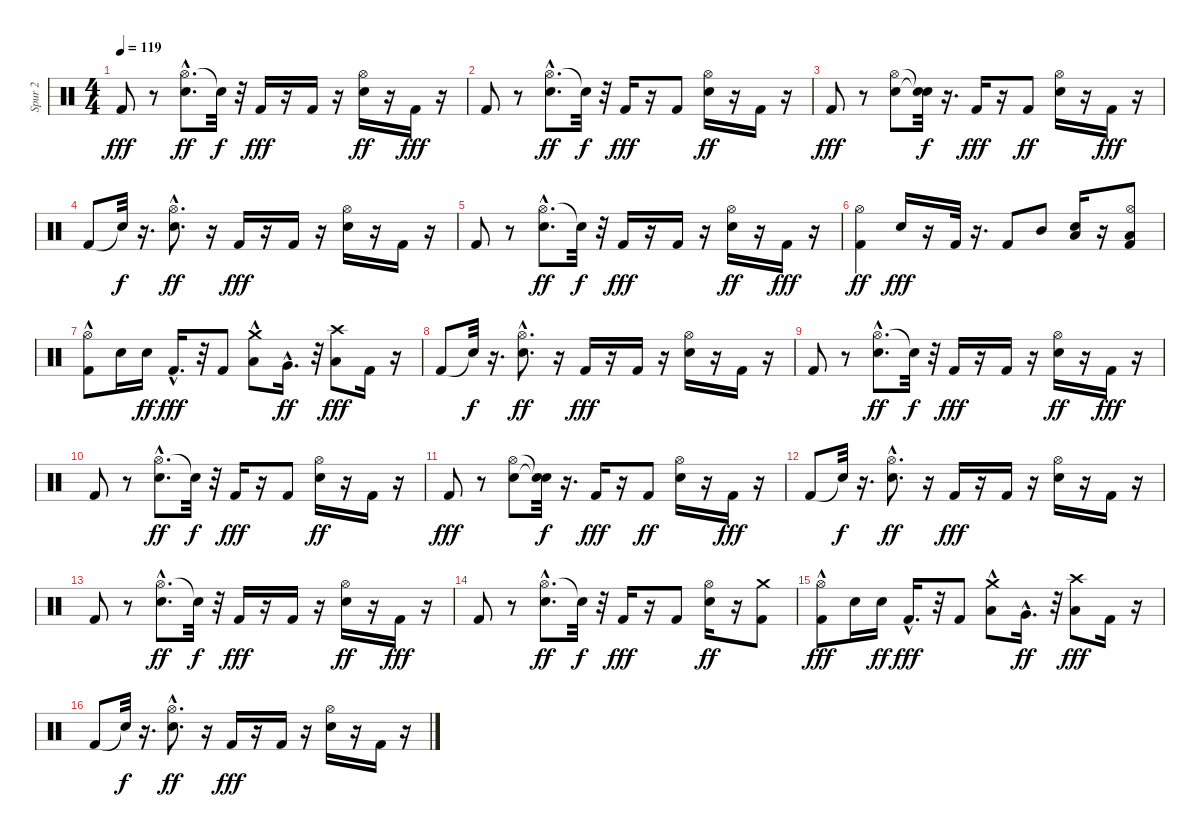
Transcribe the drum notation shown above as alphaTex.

\track ("Spur 2" "Spur 2") {instrument percussion}
\staff {score}
\articulation defaults
\ts (4 4)
\tempo 119
\clef neutral
\ks c "Kick (hit) 2".8{dy fff}
r.8 ("Hi-Hat (open)"{hac} "Electric Snare (hit)").8{d dy ff} "Snare (hit)"{t}.32{dy f} r.32 "Kick (hit) 2".16{dy fff} r.16 "Kick (hit) 2".16 r.16 ("Hi-Hat (open)" "Electric Snare (hit)").16{dy ff} r.16 "Kick (hit) 2".16{dy fff} r.16 |
"Kick (hit) 2".8 r.8 ("Hi-Hat (open)"{hac} "Electric Snare (hit)").8{d dy ff} "Snare (hit)"{t}.32{dy f} r.32 "Kick (hit) 2".16{dy fff} r.16 "Kick (hit) 2".8 ("Hi-Hat (open)" "Electric Snare (hit)").16{dy ff} r.16 "Kick (hit) 2".16 r.16 |
"Kick (hit) 2".8{dy fff} r.8 ("Hi-Hat (open)" "Electric Snare (hit)").8 ("Snare (hit)"{t} "Snare (hit)"{t}).32{dy f} r.16{d} "Kick (hit) 2".16{dy fff} r.16 "Kick (hit) 2".8{dy ff} ("Hi-Hat (open)" "Electric Snare (hit)").16 r.16 "Kick (hit) 2".16{dy fff} r.16 |
"Kick (hit) 2".8 "Snare (hit)"{t}.32{dy f} r.16{d} ("Hi-Hat (open)"{hac} "Electric Snare (hit)").8{d dy ff} r.16 "Kick (hit) 2".16{dy fff} r.16 "Kick (hit) 2".16 r.16 ("Hi-Hat (open)" "Electric Snare (hit)").16 r.16 "Kick (hit) 2".16 r.16 |
"Kick (hit) 2".8 r.8 ("Hi-Hat (open)"{hac} "Electric Snare (hit)").8{d dy ff} "Snare (hit)"{t}.32{dy f} r.32 "Kick (hit) 2".16{dy fff} r.16 "Kick (hit) 2".16 r.16 ("Hi-Hat (open)" "Electric Snare (hit)").16{dy ff} r.16 "Kick (hit) 2".16{dy fff} r.16 |
("Kick (hit) 2" "Hi-Hat (open)").4{dy ff} "Electric Snare (hit)".16{dy fff} r.16 "Kick (hit) 2".32 r.16{d} "Kick (hit) 2".8 "Mid Tom (hit)".8 ("Low Tom (hit)" "Electric Snare (hit)").16 r.16 ("Kick (hit) 2" "Hi-Hat (open)" "Low Tom (hit)").8 |
("Hi-Hat (open)" "Kick (hit) 2"{hac}).8 "Electric Snare (hit)".16 "Snare (hit) 2".16{dy ff} "Kick (hit) 2"{hac}.16{d dy fff} r.32 "Kick (hit) 2".8 ("Crash medium (hit)"{hac} "Low Tom (hit)").8 "Very Low Tom (hit)"{hac}.16{d dy ff} r.32 ("Crash high (hit)" "Low Floor Tom (hit)").8{dy fff} "Kick (hit) 2".16 r.16 |
"Kick (hit) 2".8 "Snare (hit)"{t}.32{dy f} r.16{d} ("Hi-Hat (open)"{hac} "Electric Snare (hit)").8{d dy ff} r.16 "Kick (hit) 2".16{dy fff} r.16 "Kick (hit) 2".16 r.16 ("Hi-Hat (open)" "Electric Snare (hit)").16 r.16 "Kick (hit) 2".16 r.16 |
"Kick (hit) 2".8 r.8 ("Hi-Hat (open)"{hac} "Electric Snare (hit)").8{d dy ff} "Snare (hit)"{t}.32{dy f} r.32 "Kick (hit) 2".16{dy fff} r.16 "Kick (hit) 2".16 r.16 ("Hi-Hat (open)" "Electric Snare (hit)").16{dy ff} r.16 "Kick (hit) 2".16{dy fff} r.16 |
"Kick (hit) 2".8 r.8 ("Hi-Hat (open)"{hac} "Electric Snare (hit)").8{d dy ff} "Snare (hit)"{t}.32{dy f} r.32 "Kick (hit) 2".16{dy fff} r.16 "Kick (hit) 2".8 ("Hi-Hat (open)" "Electric Snare (hit)").16{dy ff} r.16 "Kick (hit) 2".16 r.16 |
"Kick (hit) 2".8{dy fff} r.8 ("Hi-Hat (open)" "Electric Snare (hit)").8 ("Snare (hit)"{t} "Snare (hit)"{t}).32{dy f} r.16{d} "Kick (hit) 2".16{dy fff} r.16 "Kick (hit) 2".8{dy ff} ("Hi-Hat (open)" "Electric Snare (hit)").16 r.16 "Kick (hit) 2".16{dy fff} r.16 |
"Kick (hit) 2".8 "Snare (hit)"{t}.32{dy f} r.16{d} ("Hi-Hat (open)"{hac} "Electric Snare (hit)").8{d dy ff} r.16 "Kick (hit) 2".16{dy fff} r.16 "Kick (hit) 2".16 r.16 ("Hi-Hat (open)" "Electric Snare (hit)").16 r.16 "Kick (hit) 2".16 r.16 |
"Kick (hit) 2".8 r.8 ("Hi-Hat (open)"{hac} "Electric Snare (hit)").8{d dy ff} "Snare (hit)"{t}.32{dy f} r.32 "Kick (hit) 2".16{dy fff} r.16 "Kick (hit) 2".16 r.16 ("Hi-Hat (open)" "Electric Snare (hit)").16{dy ff} r.16 "Kick (hit) 2".16{dy fff} r.16 |
"Kick (hit) 2".8 r.8 ("Hi-Hat (open)"{hac} "Electric Snare (hit)").8{d dy ff} "Snare (hit)"{t}.32{dy f} r.32 "Kick (hit) 2".16{dy fff} r.16 "Kick (hit) 2".8 ("Hi-Hat (open)" "Electric Snare (hit)").16{dy ff} r.16 ("Crash medium (hit)" "Kick (hit) 2").8 |
("Hi-Hat (open)" "Kick (hit) 2"{hac}).8{dy fff} "Electric Snare (hit)".16 "Snare (hit) 2".16{dy ff} "Kick (hit) 2"{hac}.16{d dy fff} r.32 "Kick (hit) 2".8 ("Crash medium (hit)"{hac} "Low Tom (hit)").8 "Very Low Tom (hit)"{hac}.16{d dy ff} r.32 ("Crash high (hit)" "Low Floor Tom (hit)").8{dy fff} "Kick (hit) 2".16 r.16 |
"Kick (hit) 2".8 "Snare (hit)"{t}.32{dy f} r.16{d} ("Hi-Hat (open)"{hac} "Electric Snare (hit)").8{d dy ff} r.16 "Kick (hit) 2".16{dy fff} r.16 "Kick (hit) 2".16 r.16 ("Hi-Hat (open)" "Electric Snare (hit)").16 r.16 "Kick (hit) 2".16 r.16
